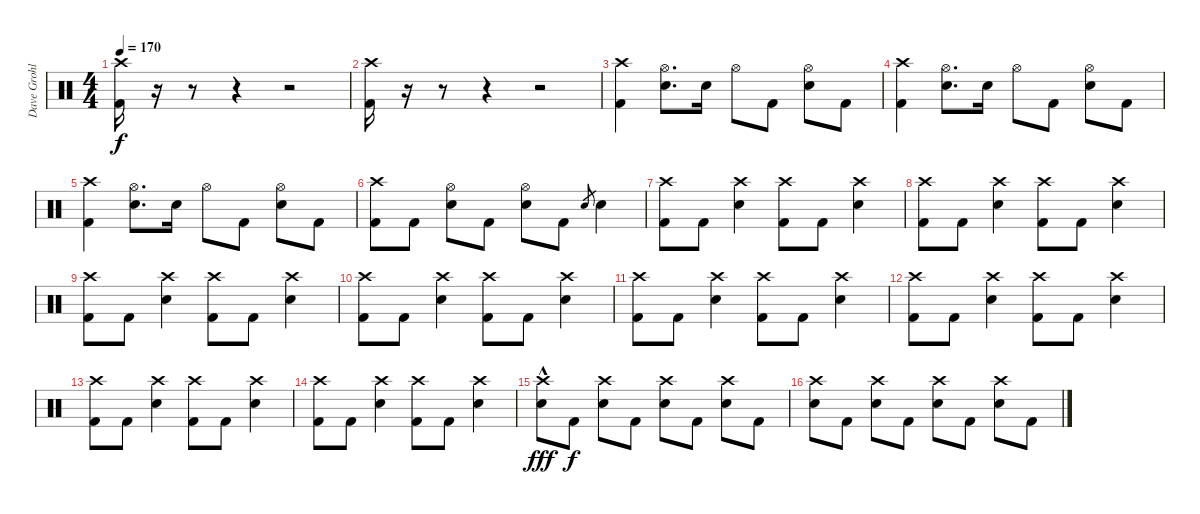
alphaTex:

\track ("Dave Grohl" "Dave Grohl") {instrument percussion}
\staff {score}
\articulation defaults
\ts (4 4)
\tempo 170
\clef neutral
\ks c
("Crash high (hit)" "Kick (hit) 2").16{dy f} r.16 r.8 r.4 r.2 |
("Crash high (hit)" "Kick (hit) 2").16 r.16 r.8 r.4 r.2 |
("Crash high (hit)" "Kick (hit) 2").4 ("Hi-Hat (open)" "Snare (hit) 2").8{d} "Snare (hit) 2".16 "Hi-Hat (open)".8 "Kick (hit) 2".8 ("Hi-Hat (open)" "Snare (hit) 2").8 "Kick (hit) 2".8 |
("Crash high (hit)" "Kick (hit) 2").4 ("Hi-Hat (open)" "Snare (hit) 2").8{d} "Snare (hit) 2".16 "Hi-Hat (open)".8 "Kick (hit) 2".8 ("Hi-Hat (open)" "Snare (hit) 2").8 "Kick (hit) 2".8 |
("Crash high (hit)" "Kick (hit) 2").4 ("Hi-Hat (open)" "Snare (hit) 2").8{d} "Snare (hit) 2".16 "Hi-Hat (open)".8 "Kick (hit) 2".8 ("Hi-Hat (open)" "Snare (hit) 2").8 "Kick (hit) 2".8 |
("Crash high (hit)" "Kick (hit) 2").8 "Kick (hit) 2".8 ("Hi-Hat (open)" "Snare (hit) 2").8 "Kick (hit) 2".8 ("Hi-Hat (open)" "Snare (hit) 2").8 "Kick (hit) 2".8 "Snare (hit) 2".8{gr} "Snare (hit) 2".4 |
("Crash high (hit)" "Kick (hit) 2").8 "Kick (hit) 2".8 ("Crash high (hit)" "Snare (hit) 2").4 ("Crash high (hit)" "Kick (hit) 2").8 "Kick (hit) 2".8 ("Crash high (hit)" "Snare (hit) 2").4 |
("Crash high (hit)" "Kick (hit) 2").8 "Kick (hit) 2".8 ("Crash high (hit)" "Snare (hit) 2").4 ("Crash high (hit)" "Kick (hit) 2").8 "Kick (hit) 2".8 ("Crash high (hit)" "Snare (hit) 2").4 |
("Crash high (hit)" "Kick (hit) 2").8 "Kick (hit) 2".8 ("Crash high (hit)" "Snare (hit) 2").4 ("Crash high (hit)" "Kick (hit) 2").8 "Kick (hit) 2".8 ("Crash high (hit)" "Snare (hit) 2").4 |
("Crash high (hit)" "Kick (hit) 2").8 "Kick (hit) 2".8 ("Crash high (hit)" "Snare (hit) 2").4 ("Crash high (hit)" "Kick (hit) 2").8 "Kick (hit) 2".8 ("Crash high (hit)" "Snare (hit) 2").4 |
("Crash high (hit)" "Kick (hit) 2").8 "Kick (hit) 2".8 ("Crash high (hit)" "Snare (hit) 2").4 ("Crash high (hit)" "Kick (hit) 2").8 "Kick (hit) 2".8 ("Crash high (hit)" "Snare (hit) 2").4 |
("Crash high (hit)" "Kick (hit) 2").8 "Kick (hit) 2".8 ("Crash high (hit)" "Snare (hit) 2").4 ("Crash high (hit)" "Kick (hit) 2").8 "Kick (hit) 2".8 ("Crash high (hit)" "Snare (hit) 2").4 |
("Crash high (hit)" "Kick (hit) 2").8 "Kick (hit) 2".8 ("Crash high (hit)" "Snare (hit) 2").4 ("Crash high (hit)" "Kick (hit) 2").8 "Kick (hit) 2".8 ("Crash high (hit)" "Snare (hit) 2").4 |
("Crash high (hit)" "Kick (hit) 2").8 "Kick (hit) 2".8 ("Crash high (hit)" "Snare (hit) 2").4 ("Crash high (hit)" "Kick (hit) 2").8 "Kick (hit) 2".8 ("Crash high (hit)" "Snare (hit) 2").4 |
("Crash high (hit)"{hac} "Snare (hit) 2").8{dy fff} "Kick (hit) 2".8{dy f} ("Crash high (hit)" "Snare (hit) 2").8 "Kick (hit) 2".8 ("Crash high (hit)" "Snare (hit) 2").8 "Kick (hit) 2".8 ("Crash high (hit)" "Snare (hit) 2").8 "Kick (hit) 2".8 |
("Crash high (hit)" "Snare (hit) 2").8 "Kick (hit) 2".8 ("Crash high (hit)" "Snare (hit) 2").8 "Kick (hit) 2".8 ("Crash high (hit)" "Snare (hit) 2").8 "Kick (hit) 2".8 ("Crash high (hit)" "Snare (hit) 2").8 "Kick (hit) 2".8
